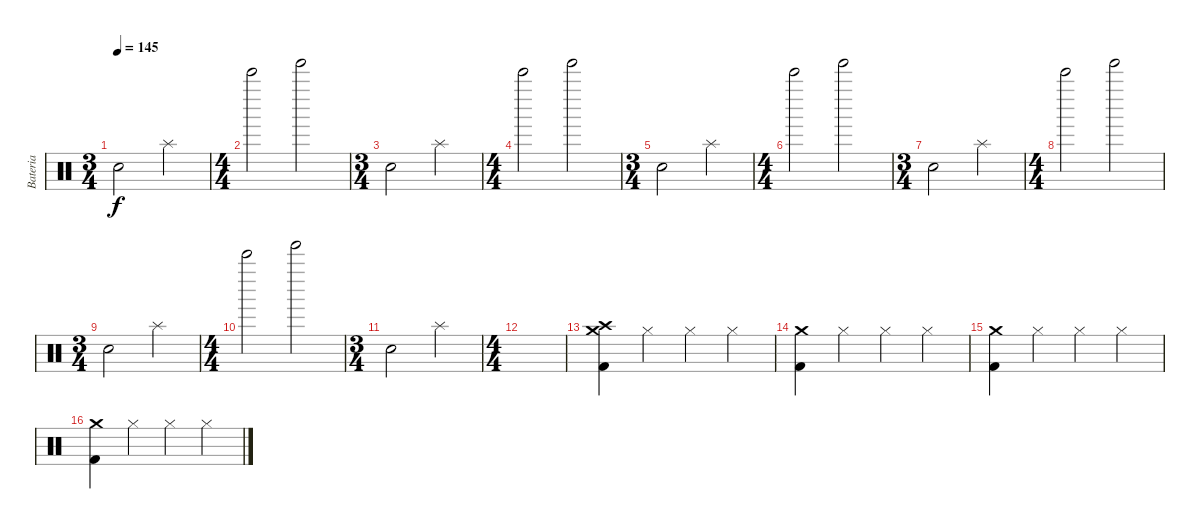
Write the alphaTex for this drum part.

\track ("Bateria" "Bateria") {instrument percussion}
\staff {score}
\articulation defaults
\ts (3 4)
\tempo 145
\clef neutral
\ks c "Hand Clap (hit)".2{dy f} "Splash (hit)".4
|
\ts (4 4)
"Bell Tree (hit)".2 "Tinkle Bell (hit)".2 |
\ts (3 4)
"Hand Clap (hit)".2 "Splash (hit)".4 |
\ts (4 4)
"Bell Tree (hit)".2 "Tinkle Bell (hit)".2 |
\ts (3 4)
"Hand Clap (hit)".2 "Splash (hit)".4 |
\ts (4 4)
"Bell Tree (hit)".2 "Tinkle Bell (hit)".2 |
\ts (3 4)
"Hand Clap (hit)".2 "Splash (hit)".4 |
\ts (4 4)
"Bell Tree (hit)".2 "Tinkle Bell (hit)".2 |
\ts (3 4)
"Hand Clap (hit)".2 "Splash (hit)".4 |
\ts (4 4)
"Bell Tree (hit)".2 "Tinkle Bell (hit)".2 |
\ts (3 4)
"Hand Clap (hit)".2 "Splash (hit)".4 |
\ts (4 4)
|
("Crash medium (hit)" "Crash high (hit)" "Kick (hit) 2").4 "Hi-Hat (closed)".4 "Hi-Hat (closed)".4 "Hi-Hat (closed)".4 |
("Crash medium (hit)" "Kick (hit) 2").4 "Hi-Hat (closed)".4 "Hi-Hat (closed)".4 "Hi-Hat (closed)".4 |
("Crash medium (hit)" "Kick (hit) 2").4 "Hi-Hat (closed)".4 "Hi-Hat (closed)".4 "Hi-Hat (closed)".4 |
("Crash medium (hit)" "Kick (hit) 2").4 "Hi-Hat (closed)".4 "Hi-Hat (closed)".4 "Hi-Hat (closed)".4
